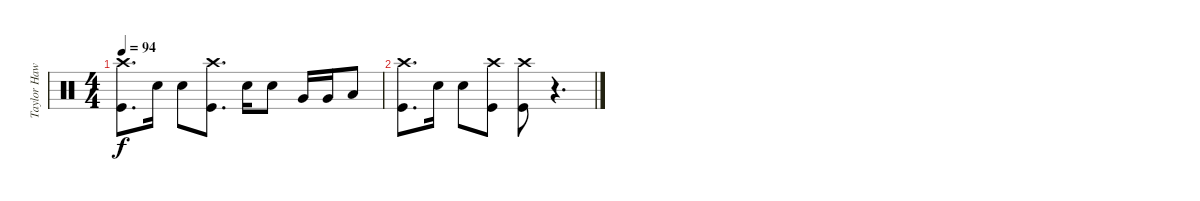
\track ("Taylor Hawkins - Drums" "Taylor Haw") {instrument percussion}
\staff {score}
\articulation defaults
\ts (4 4)
\tempo 94
\clef neutral
\ks c
("Crash high (hit)" "Kick (hit)").8{d dy f} "Electric Snare (hit)".16 "Electric Snare (hit)".8 ("Crash high (hit)" "Kick (hit)").8{d} "Electric Snare (hit)".16 "Electric Snare (hit)".8 "Very Low Tom (hit)".16 "Very Low Tom (hit)".16 "Low Floor Tom (hit)".8 |
("Crash high (hit)" "Kick (hit)").8{d} "Electric Snare (hit)".16 "Electric Snare (hit)".8 ("Crash high (hit)" "Kick (hit)").8 ("Crash high (hit)" "Kick (hit)").8 r.4{d}
